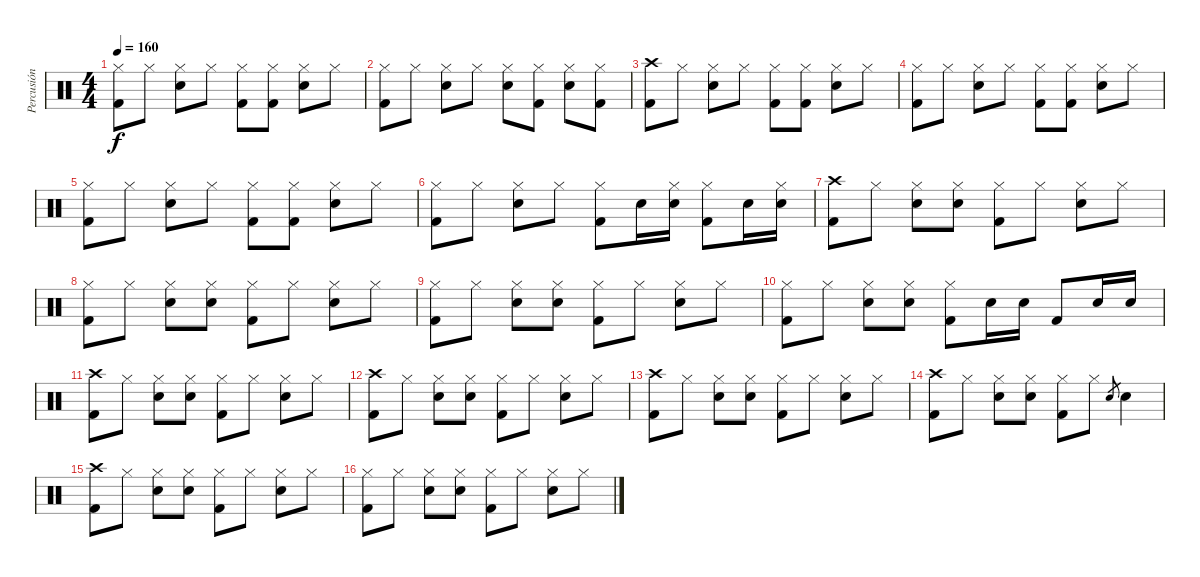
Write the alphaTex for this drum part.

\track ("Percusión" "Percusión") {instrument percussion}
\staff {score}
\articulation defaults
\ts (4 4)
\tempo 160
\clef neutral
\ks c
("Hi-Hat (closed)" "Kick (hit) 2").8{dy f} "Hi-Hat (closed)".8 ("Hi-Hat (closed)" "Snare (hit) 2").8 "Hi-Hat (closed)".8 ("Hi-Hat (closed)" "Kick (hit) 2").8 ("Hi-Hat (closed)" "Kick (hit) 2").8 ("Hi-Hat (closed)" "Snare (hit) 2").8 "Hi-Hat (closed)".8 |
("Hi-Hat (closed)" "Kick (hit) 2").8 "Hi-Hat (closed)".8 ("Hi-Hat (closed)" "Snare (hit) 2").8 "Hi-Hat (closed)".8 ("Hi-Hat (closed)" "Electric Snare (hit)").8 ("Hi-Hat (closed)" "Kick (hit) 2").8 ("Hi-Hat (closed)" "Electric Snare (hit)").8 ("Hi-Hat (closed)" "Kick (hit) 2").8 |
("Crash high (hit)" "Kick (hit) 2").8 "Hi-Hat (closed)".8 ("Hi-Hat (closed)" "Snare (hit) 2").8 "Hi-Hat (closed)".8 ("Hi-Hat (closed)" "Kick (hit) 2").8 ("Hi-Hat (closed)" "Kick (hit) 2").8 ("Hi-Hat (closed)" "Snare (hit) 2").8 "Hi-Hat (closed)".8 |
("Hi-Hat (closed)" "Kick (hit) 2").8 "Hi-Hat (closed)".8 ("Hi-Hat (closed)" "Snare (hit) 2").8 "Hi-Hat (closed)".8 ("Hi-Hat (closed)" "Kick (hit) 2").8 ("Hi-Hat (closed)" "Kick (hit) 2").8 ("Hi-Hat (closed)" "Snare (hit) 2").8 "Hi-Hat (closed)".8 |
("Hi-Hat (closed)" "Kick (hit) 2").8 "Hi-Hat (closed)".8 ("Hi-Hat (closed)" "Snare (hit) 2").8 "Hi-Hat (closed)".8 ("Hi-Hat (closed)" "Kick (hit) 2").8 ("Hi-Hat (closed)" "Kick (hit) 2").8 ("Hi-Hat (closed)" "Snare (hit) 2").8 "Hi-Hat (closed)".8 |
("Hi-Hat (closed)" "Kick (hit) 2").8 "Hi-Hat (closed)".8 ("Hi-Hat (closed)" "Snare (hit) 2").8 "Hi-Hat (closed)".8 ("Hi-Hat (closed)" "Kick (hit) 2").8 "Electric Snare (hit)".16 ("Hi-Hat (closed)" "Electric Snare (hit)").16 ("Hi-Hat (closed)" "Kick (hit) 2").8 "Electric Snare (hit)".16 ("Hi-Hat (closed)" "Electric Snare (hit)").16 |
("Crash high (hit)" "Kick (hit) 2").8 "Hi-Hat (closed)".8 ("Hi-Hat (closed)" "Snare (hit) 2").8 ("Hi-Hat (closed)" "Snare (hit) 2").8 ("Hi-Hat (closed)" "Kick (hit) 2").8 "Hi-Hat (closed)".8 ("Hi-Hat (closed)" "Snare (hit) 2").8 "Hi-Hat (closed)".8 |
("Hi-Hat (closed)" "Kick (hit) 2").8 "Hi-Hat (closed)".8 ("Hi-Hat (closed)" "Snare (hit) 2").8 ("Hi-Hat (closed)" "Snare (hit) 2").8 ("Hi-Hat (closed)" "Kick (hit) 2").8 "Hi-Hat (closed)".8 ("Hi-Hat (closed)" "Snare (hit) 2").8 "Hi-Hat (closed)".8 |
("Hi-Hat (closed)" "Kick (hit) 2").8 "Hi-Hat (closed)".8 ("Hi-Hat (closed)" "Snare (hit) 2").8 ("Hi-Hat (closed)" "Snare (hit) 2").8 ("Hi-Hat (closed)" "Kick (hit) 2").8 "Hi-Hat (closed)".8 ("Hi-Hat (closed)" "Snare (hit) 2").8 "Hi-Hat (closed)".8 |
("Hi-Hat (closed)" "Kick (hit) 2").8 "Hi-Hat (closed)".8 ("Hi-Hat (closed)" "Snare (hit) 2").8 ("Hi-Hat (closed)" "Snare (hit) 2").8 ("Hi-Hat (closed)" "Kick (hit) 2").8 "Electric Snare (hit)".16 "Electric Snare (hit)".16 "Kick (hit) 2".8 "Electric Snare (hit)".16 "Electric Snare (hit)".16 |
("Crash high (hit)" "Kick (hit) 2").8 "Hi-Hat (closed)".8 ("Hi-Hat (closed)" "Snare (hit) 2").8 ("Hi-Hat (closed)" "Snare (hit) 2").8 ("Hi-Hat (closed)" "Kick (hit) 2").8 "Hi-Hat (closed)".8 ("Hi-Hat (closed)" "Snare (hit) 2").8 "Hi-Hat (closed)".8 |
("Crash high (hit)" "Kick (hit) 2").8 "Hi-Hat (closed)".8 ("Hi-Hat (closed)" "Snare (hit) 2").8 ("Hi-Hat (closed)" "Snare (hit) 2").8 ("Hi-Hat (closed)" "Kick (hit) 2").8 "Hi-Hat (closed)".8 ("Hi-Hat (closed)" "Snare (hit) 2").8 "Hi-Hat (closed)".8 |
("Crash high (hit)" "Kick (hit) 2").8 "Hi-Hat (closed)".8 ("Hi-Hat (closed)" "Snare (hit) 2").8 ("Hi-Hat (closed)" "Snare (hit) 2").8 ("Hi-Hat (closed)" "Kick (hit) 2").8 "Hi-Hat (closed)".8 ("Hi-Hat (closed)" "Snare (hit) 2").8 "Hi-Hat (closed)".8 |
("Crash high (hit)" "Kick (hit) 2").8 "Hi-Hat (closed)".8 ("Hi-Hat (closed)" "Snare (hit) 2").8 ("Hi-Hat (closed)" "Snare (hit) 2").8 ("Hi-Hat (closed)" "Kick (hit) 2").8 "Hi-Hat (closed)".8 "Snare (hit) 2".8{gr} "Snare (hit) 2".4 |
("Crash high (hit)" "Kick (hit) 2").8 "Hi-Hat (closed)".8 ("Hi-Hat (closed)" "Snare (hit) 2").8 ("Hi-Hat (closed)" "Snare (hit) 2").8 ("Hi-Hat (closed)" "Kick (hit) 2").8 "Hi-Hat (closed)".8 ("Hi-Hat (closed)" "Snare (hit) 2").8 "Hi-Hat (closed)".8 |
("Hi-Hat (closed)" "Kick (hit) 2").8 "Hi-Hat (closed)".8 ("Hi-Hat (closed)" "Snare (hit) 2").8 ("Hi-Hat (closed)" "Snare (hit) 2").8 ("Hi-Hat (closed)" "Kick (hit) 2").8 "Hi-Hat (closed)".8 ("Hi-Hat (closed)" "Snare (hit) 2").8 "Hi-Hat (closed)".8
